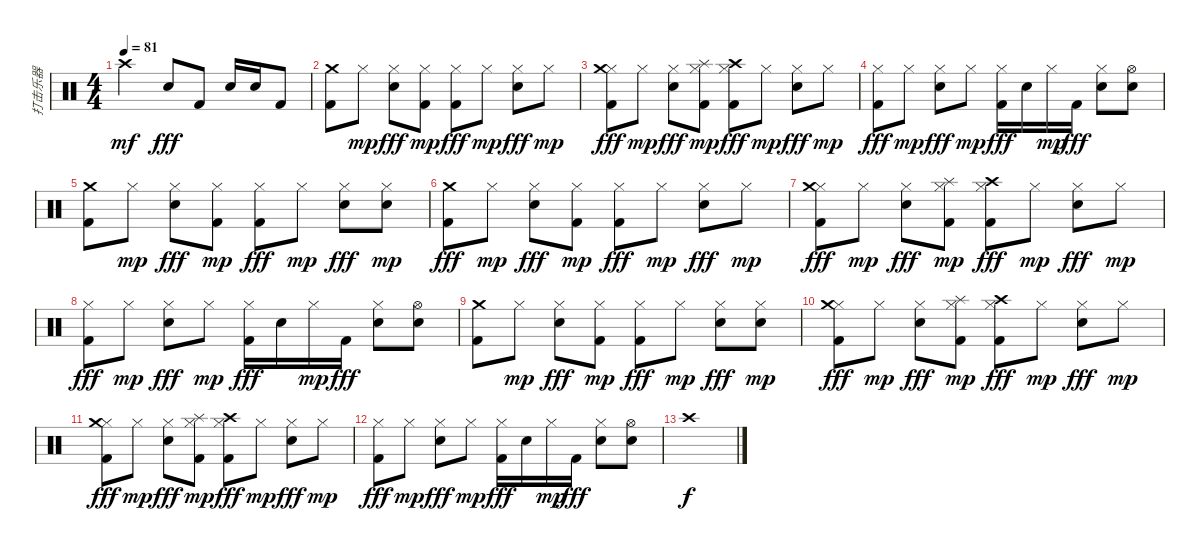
\track ("打击乐器" "打击乐器") {instrument percussion}
\staff {score}
\articulation defaults
\ts (4 4)
\tempo 81
\clef neutral
\ks c "Crash high (hit)".2{dy mf} "Electric Snare (hit)".8{dy fff} "Kick (hit) 2".8 "Electric Snare (hit)".16 "Electric Snare (hit)".16 "Kick (hit) 2".8
|
("Crash medium (hit)" "Kick (hit) 2").8 "Hi-Hat (closed)".8{dy mp} ("Hi-Hat (closed)" "Electric Snare (hit)").8{dy fff} ("Hi-Hat (closed)" "Kick (hit) 2").8{dy mp} ("Hi-Hat (closed)" "Kick (hit) 2").8{dy fff} "Hi-Hat (closed)".8{dy mp} ("Hi-Hat (closed)" "Electric Snare (hit)").8{dy fff} "Hi-Hat (closed)".8{dy mp} |
("Hi-Hat (closed)" "Crash medium (hit)" "Kick (hit) 2").8{dy fff} "Hi-Hat (closed)".8{dy mp} ("Hi-Hat (closed)" "Electric Snare (hit)").8{dy fff} ("Hi-Hat (closed)" "Splash (hit)" "Kick (hit) 2").8{dy mp} ("Hi-Hat (closed)" "Crash high (hit)" "Kick (hit) 2").8{dy fff} "Hi-Hat (closed)".8{dy mp} ("Hi-Hat (closed)" "Electric Snare (hit)").8{dy fff} "Hi-Hat (closed)".8{dy mp} |
("Hi-Hat (closed)" "Kick (hit) 2").8{dy fff} "Hi-Hat (closed)".8{dy mp} ("Hi-Hat (closed)" "Electric Snare (hit)").8{dy fff} "Hi-Hat (closed)".8{dy mp} ("Hi-Hat (closed)" "Kick (hit) 2").16{dy fff} "Electric Snare (hit)".16 "Hi-Hat (closed)".16{dy mp} "Kick (hit) 2".16{dy fff} ("Hi-Hat (closed)" "Electric Snare (hit)").8 ("Hi-Hat (open)" "Electric Snare (hit)").8 |
("Crash medium (hit)" "Kick (hit) 2").8 "Hi-Hat (closed)".8{dy mp} ("Hi-Hat (closed)" "Electric Snare (hit)").8{dy fff} ("Hi-Hat (closed)" "Kick (hit) 2").8{dy mp} ("Hi-Hat (closed)" "Kick (hit) 2").8{dy fff} "Hi-Hat (closed)".8{dy mp} ("Hi-Hat (closed)" "Electric Snare (hit)").8{dy fff} ("Hi-Hat (closed)" "Electric Snare (hit)").8{dy mp} |
("Crash medium (hit)" "Kick (hit) 2").8{dy fff} "Hi-Hat (closed)".8{dy mp} ("Hi-Hat (closed)" "Electric Snare (hit)").8{dy fff} ("Hi-Hat (closed)" "Kick (hit) 2").8{dy mp} ("Hi-Hat (closed)" "Kick (hit) 2").8{dy fff} "Hi-Hat (closed)".8{dy mp} ("Hi-Hat (closed)" "Electric Snare (hit)").8{dy fff} "Hi-Hat (closed)".8{dy mp} |
("Hi-Hat (closed)" "Crash medium (hit)" "Kick (hit) 2").8{dy fff} "Hi-Hat (closed)".8{dy mp} ("Hi-Hat (closed)" "Electric Snare (hit)").8{dy fff} ("Hi-Hat (closed)" "Splash (hit)" "Kick (hit) 2").8{dy mp} ("Hi-Hat (closed)" "Crash high (hit)" "Kick (hit) 2").8{dy fff} "Hi-Hat (closed)".8{dy mp} ("Hi-Hat (closed)" "Electric Snare (hit)").8{dy fff} "Hi-Hat (closed)".8{dy mp} |
("Hi-Hat (closed)" "Kick (hit) 2").8{dy fff} "Hi-Hat (closed)".8{dy mp} ("Hi-Hat (closed)" "Electric Snare (hit)").8{dy fff} "Hi-Hat (closed)".8{dy mp} ("Hi-Hat (closed)" "Kick (hit) 2").16{dy fff} "Electric Snare (hit)".16 "Hi-Hat (closed)".16{dy mp} "Kick (hit) 2".16{dy fff} ("Hi-Hat (closed)" "Electric Snare (hit)").8 ("Hi-Hat (open)" "Electric Snare (hit)").8 |
("Crash medium (hit)" "Kick (hit) 2").8 "Hi-Hat (closed)".8{dy mp} ("Hi-Hat (closed)" "Electric Snare (hit)").8{dy fff} ("Hi-Hat (closed)" "Kick (hit) 2").8{dy mp} ("Hi-Hat (closed)" "Kick (hit) 2").8{dy fff} "Hi-Hat (closed)".8{dy mp} ("Hi-Hat (closed)" "Electric Snare (hit)").8{dy fff} ("Hi-Hat (closed)" "Electric Snare (hit)").8{dy mp} |
("Hi-Hat (closed)" "Crash medium (hit)" "Kick (hit) 2").8{dy fff} "Hi-Hat (closed)".8{dy mp} ("Hi-Hat (closed)" "Electric Snare (hit)").8{dy fff} ("Hi-Hat (closed)" "Splash (hit)" "Kick (hit) 2").8{dy mp} ("Hi-Hat (closed)" "Crash high (hit)" "Kick (hit) 2").8{dy fff} "Hi-Hat (closed)".8{dy mp} ("Hi-Hat (closed)" "Electric Snare (hit)").8{dy fff} "Hi-Hat (closed)".8{dy mp} |
("Hi-Hat (closed)" "Crash medium (hit)" "Kick (hit) 2").8{dy fff} "Hi-Hat (closed)".8{dy mp} ("Hi-Hat (closed)" "Electric Snare (hit)").8{dy fff} ("Hi-Hat (closed)" "Splash (hit)" "Kick (hit) 2").8{dy mp} ("Hi-Hat (closed)" "Crash high (hit)" "Kick (hit) 2").8{dy fff} "Hi-Hat (closed)".8{dy mp} ("Hi-Hat (closed)" "Electric Snare (hit)").8{dy fff} "Hi-Hat (closed)".8{dy mp} |
("Hi-Hat (closed)" "Kick (hit) 2").8{dy fff} "Hi-Hat (closed)".8{dy mp} ("Hi-Hat (closed)" "Electric Snare (hit)").8{dy fff} "Hi-Hat (closed)".8{dy mp} ("Hi-Hat (closed)" "Kick (hit) 2").16{dy fff} "Electric Snare (hit)".16 "Hi-Hat (closed)".16{dy mp} "Kick (hit) 2".16{dy fff} ("Hi-Hat (closed)" "Electric Snare (hit)").8 ("Hi-Hat (open)" "Electric Snare (hit)").8 |
"Crash high (hit)".1{dy f}
